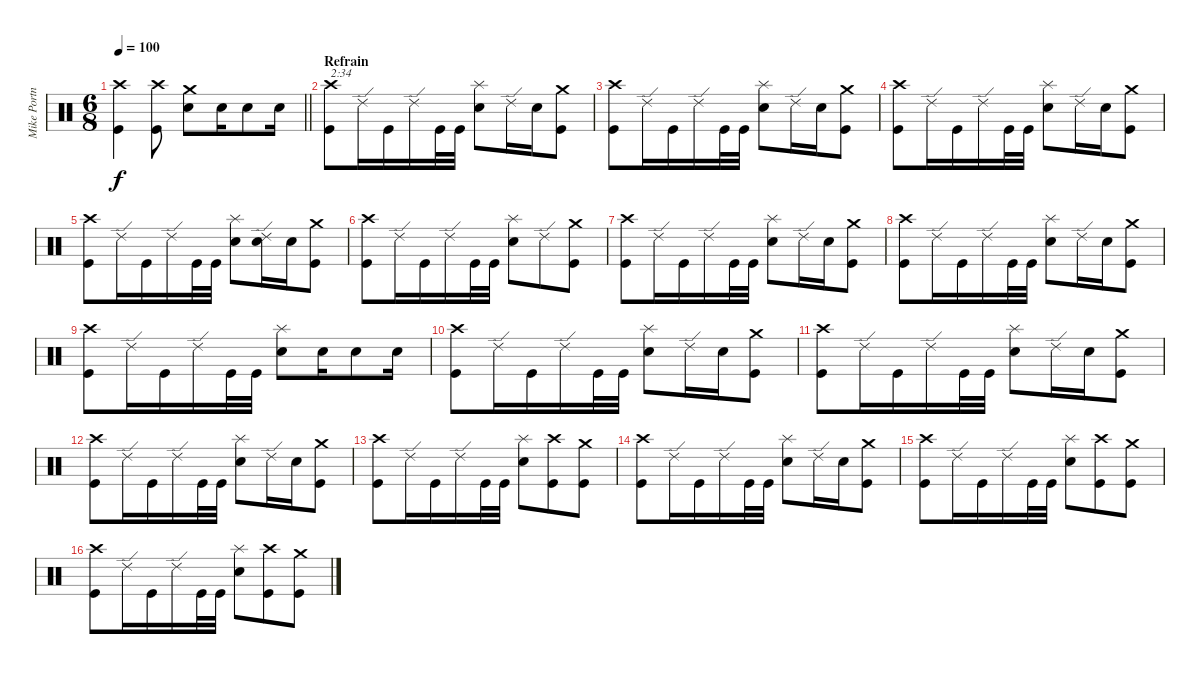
\track ("Mike Portnoy" "Mike Portn") {instrument percussion}
\staff {score}
\articulation defaults
\ts (6 8)
\tempo 100
\clef neutral
\barLineRight lightlight
\ks c
("Crash high (hit)" "Kick (hit)").4{dy f} ("Crash high (hit)" "Kick (hit)").8 ("Crash medium (hit)" "Snare (hit) 2").8 "Snare (hit) 2".16 "Snare (hit) 2".8 "Snare (hit) 2".16 |
\section ("" "Refrain")
("Crash high (hit)" "Kick (hit)").8{txt "2:34"} "Ride (edge) 2".16 "Kick (hit)".16 "Ride (edge) 2".16 "Kick (hit)".32 "Kick (hit)".32 ("Splash (hit)" "Snare (hit) 2").8 "Ride (edge) 2".16 "Snare (hit) 2".16 ("Crash medium (hit)" "Kick (hit)").8 |
("Crash high (hit)" "Kick (hit)").8 "Ride (edge) 2".16 "Kick (hit)".16 "Ride (edge) 2".16 "Kick (hit)".32 "Kick (hit)".32 ("Splash (hit)" "Snare (hit) 2").8 "Ride (edge) 2".16 "Snare (hit) 2".16 ("Crash medium (hit)" "Kick (hit)").8 |
("Crash high (hit)" "Kick (hit)").8 "Ride (edge) 2".16 "Kick (hit)".16 "Ride (edge) 2".16 "Kick (hit)".32 "Kick (hit)".32 ("Splash (hit)" "Snare (hit) 2").8 "Ride (edge) 2".16 "Snare (hit) 2".16 ("Crash medium (hit)" "Kick (hit)").8 |
("Crash high (hit)" "Kick (hit)").8 "Ride (edge) 2".16 "Kick (hit)".16 "Ride (edge) 2".16 "Kick (hit)".32 "Kick (hit)".32 ("Splash (hit)" "Snare (hit) 2").8 ("Ride (edge) 2" "Snare (hit) 2").16 "Snare (hit) 2".16 ("Crash medium (hit)" "Kick (hit)").8 |
("Crash high (hit)" "Kick (hit)").8 "Ride (edge) 2".16 "Kick (hit)".16 "Ride (edge) 2".16 "Kick (hit)".32 "Kick (hit)".32 ("Splash (hit)" "Snare (hit) 2").8 "Ride (edge) 2".8 ("Crash medium (hit)" "Kick (hit)").8 |
("Crash high (hit)" "Kick (hit)").8 "Ride (edge) 2".16 "Kick (hit)".16 "Ride (edge) 2".16 "Kick (hit)".32 "Kick (hit)".32 ("Splash (hit)" "Snare (hit) 2").8 "Ride (edge) 2".16 "Snare (hit) 2".16 ("Crash medium (hit)" "Kick (hit)").8 |
("Crash high (hit)" "Kick (hit)").8 "Ride (edge) 2".16 "Kick (hit)".16 "Ride (edge) 2".16 "Kick (hit)".32 "Kick (hit)".32 ("Splash (hit)" "Snare (hit) 2").8 "Ride (edge) 2".16 "Snare (hit) 2".16 ("Crash medium (hit)" "Kick (hit)").8 |
("Crash high (hit)" "Kick (hit)").8 "Ride (edge) 2".16 "Kick (hit)".16 "Ride (edge) 2".16 "Kick (hit)".32 "Kick (hit)".32 ("Splash (hit)" "Snare (hit) 2").8 "Snare (hit) 2".16 "Snare (hit) 2".8 "Snare (hit) 2".16 |
("Crash high (hit)" "Kick (hit)").8 "Ride (edge) 2".16 "Kick (hit)".16 "Ride (edge) 2".16 "Kick (hit)".32 "Kick (hit)".32 ("Splash (hit)" "Snare (hit) 2").8 "Ride (edge) 2".16 "Snare (hit) 2".16 ("Crash medium (hit)" "Kick (hit)").8 |
("Crash high (hit)" "Kick (hit)").8 "Ride (edge) 2".16 "Kick (hit)".16 "Ride (edge) 2".16 "Kick (hit)".32 "Kick (hit)".32 ("Splash (hit)" "Snare (hit) 2").8 "Ride (edge) 2".16 "Snare (hit) 2".16 ("Crash medium (hit)" "Kick (hit)").8 |
("Crash high (hit)" "Kick (hit)").8 "Ride (edge) 2".16 "Kick (hit)".16 "Ride (edge) 2".16 "Kick (hit)".32 "Kick (hit)".32 ("Splash (hit)" "Snare (hit) 2").8 "Ride (edge) 2".16 "Snare (hit) 2".16 ("Crash medium (hit)" "Kick (hit)").8 |
("Crash high (hit)" "Kick (hit)").8 "Ride (edge) 2".16 "Kick (hit)".16 "Ride (edge) 2".16 "Kick (hit)".32 "Kick (hit)".32 ("Splash (hit)" "Snare (hit) 2").8 ("Crash high (hit)" "Kick (hit)").8 ("Crash medium (hit)" "Kick (hit)").8 |
("Crash high (hit)" "Kick (hit)").8 "Ride (edge) 2".16 "Kick (hit)".16 "Ride (edge) 2".16 "Kick (hit)".32 "Kick (hit)".32 ("Splash (hit)" "Snare (hit) 2").8 "Ride (edge) 2".16 "Snare (hit) 2".16 ("Crash medium (hit)" "Kick (hit)").8 |
("Crash high (hit)" "Kick (hit)").8 "Ride (edge) 2".16 "Kick (hit)".16 "Ride (edge) 2".16 "Kick (hit)".32 "Kick (hit)".32 ("Splash (hit)" "Snare (hit) 2").8 ("Crash high (hit)" "Kick (hit)").8 ("Crash medium (hit)" "Kick (hit)").8 |
("Crash high (hit)" "Kick (hit)").8 "Ride (edge) 2".16 "Kick (hit)".16 "Ride (edge) 2".16 "Kick (hit)".32 "Kick (hit)".32 ("Splash (hit)" "Snare (hit) 2").8 ("Crash high (hit)" "Kick (hit)").8 ("Crash medium (hit)" "Kick (hit)").8
